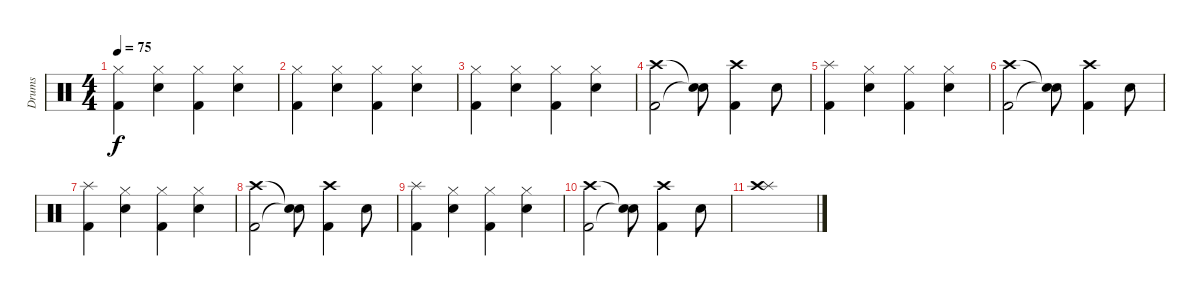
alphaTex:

\track ("Drums" "Drums") {instrument percussion}
\staff {score}
\articulation defaults
\ts (4 4)
\tempo 75
\clef neutral
\ks c
("Hi-Hat (closed)" "Kick (hit) 2").4{dy f} ("Hi-Hat (closed)" "Snare (hit) 2").4 ("Hi-Hat (closed)" "Kick (hit) 2").4 ("Hi-Hat (closed)" "Snare (hit) 2").4 |
("Hi-Hat (closed)" "Kick (hit) 2").4 ("Hi-Hat (closed)" "Snare (hit) 2").4 ("Hi-Hat (closed)" "Kick (hit) 2").4 ("Hi-Hat (closed)" "Snare (hit) 2").4 |
("Hi-Hat (closed)" "Kick (hit) 2").4 ("Hi-Hat (closed)" "Snare (hit) 2").4 ("Hi-Hat (closed)" "Kick (hit) 2").4 ("Hi-Hat (closed)" "Snare (hit) 2").4 |
("Crash high (hit)" "Kick (hit) 2").2 ("Snare (hit)"{t} "Snare (hit)"{t}).8 ("Crash high (hit)" "Kick (hit) 2").4 "Snare (hit) 2".8 |
("Splash (hit)" "Kick (hit) 2").4 ("Hi-Hat (closed)" "Snare (hit) 2").4 ("Hi-Hat (closed)" "Kick (hit) 2").4 ("Hi-Hat (closed)" "Snare (hit) 2").4 |
("Crash high (hit)" "Kick (hit) 2").2 ("Snare (hit)"{t} "Snare (hit)"{t}).8 ("Crash high (hit)" "Kick (hit) 2").4 "Snare (hit) 2".8 |
("Splash (hit)" "Kick (hit) 2").4 ("Hi-Hat (closed)" "Snare (hit) 2").4 ("Hi-Hat (closed)" "Kick (hit) 2").4 ("Hi-Hat (closed)" "Snare (hit) 2").4 |
("Crash high (hit)" "Kick (hit) 2").2 ("Snare (hit)"{t} "Snare (hit)"{t}).8 ("Crash high (hit)" "Kick (hit) 2").4 "Snare (hit) 2".8 |
("Splash (hit)" "Kick (hit) 2").4 ("Hi-Hat (closed)" "Snare (hit) 2").4 ("Hi-Hat (closed)" "Kick (hit) 2").4 ("Hi-Hat (closed)" "Snare (hit) 2").4 |
("Crash high (hit)" "Kick (hit) 2").2 ("Snare (hit)"{t} "Snare (hit)"{t}).8 ("Crash high (hit)" "Kick (hit) 2").4 "Snare (hit) 2".8 |
("Splash (hit)" "Crash high (hit)").1
